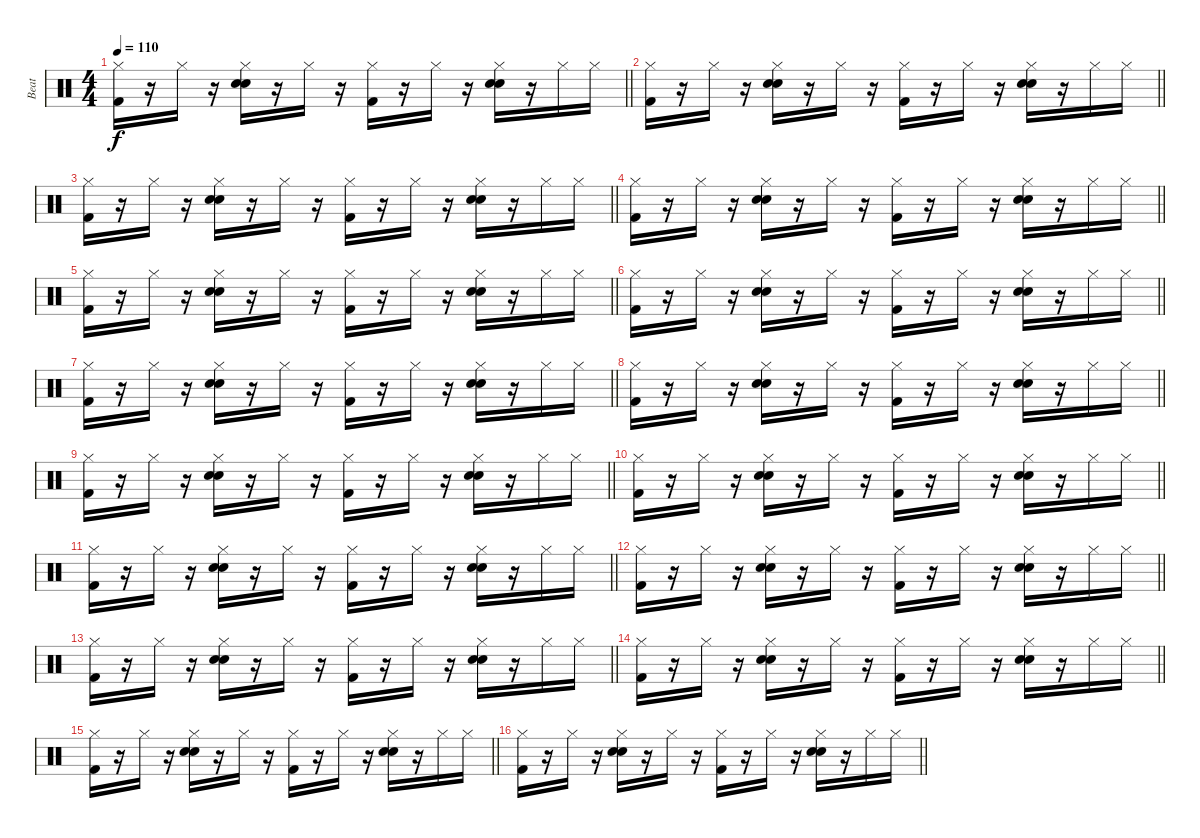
\track ("Beat" "Beat") {instrument percussion}
\staff {score}
\articulation defaults
\ts (4 4)
\tempo 110
\clef neutral
\barLineRight lightlight
\ks c
("Hi-Hat (closed)" "Kick (hit) 2").16{dy f} r.16 "Hi-Hat (closed)".16 r.16 ("Hi-Hat (closed)" "Electric Snare (hit)" "Hand Clap (hit)").16 r.16 "Hi-Hat (closed)".16 r.16 ("Hi-Hat (closed)" "Kick (hit) 2").16 r.16 "Hi-Hat (closed)".16 r.16 ("Hi-Hat (closed)" "Electric Snare (hit)" "Hand Clap (hit)").16 r.16 "Hi-Hat (closed)".16 "Hi-Hat (closed)".16 |
\barLineRight lightlight
("Hi-Hat (closed)" "Kick (hit) 2").16 r.16 "Hi-Hat (closed)".16 r.16 ("Hi-Hat (closed)" "Electric Snare (hit)" "Hand Clap (hit)").16 r.16 "Hi-Hat (closed)".16 r.16 ("Hi-Hat (closed)" "Kick (hit) 2").16 r.16 "Hi-Hat (closed)".16 r.16 ("Hi-Hat (closed)" "Electric Snare (hit)" "Hand Clap (hit)").16 r.16 "Hi-Hat (closed)".16 "Hi-Hat (closed)".16 |
\barLineRight lightlight
("Hi-Hat (closed)" "Kick (hit) 2").16 r.16 "Hi-Hat (closed)".16 r.16 ("Hi-Hat (closed)" "Electric Snare (hit)" "Hand Clap (hit)").16 r.16 "Hi-Hat (closed)".16 r.16 ("Hi-Hat (closed)" "Kick (hit) 2").16 r.16 "Hi-Hat (closed)".16 r.16 ("Hi-Hat (closed)" "Electric Snare (hit)" "Hand Clap (hit)").16 r.16 "Hi-Hat (closed)".16 "Hi-Hat (closed)".16 |
\barLineRight lightlight
("Hi-Hat (closed)" "Kick (hit) 2").16 r.16 "Hi-Hat (closed)".16 r.16 ("Hi-Hat (closed)" "Electric Snare (hit)" "Hand Clap (hit)").16 r.16 "Hi-Hat (closed)".16 r.16 ("Hi-Hat (closed)" "Kick (hit) 2").16 r.16 "Hi-Hat (closed)".16 r.16 ("Hi-Hat (closed)" "Electric Snare (hit)" "Hand Clap (hit)").16 r.16 "Hi-Hat (closed)".16 "Hi-Hat (closed)".16 |
\barLineRight lightlight
("Hi-Hat (closed)" "Kick (hit) 2").16 r.16 "Hi-Hat (closed)".16 r.16 ("Hi-Hat (closed)" "Electric Snare (hit)" "Hand Clap (hit)").16 r.16 "Hi-Hat (closed)".16 r.16 ("Hi-Hat (closed)" "Kick (hit) 2").16 r.16 "Hi-Hat (closed)".16 r.16 ("Hi-Hat (closed)" "Electric Snare (hit)" "Hand Clap (hit)").16 r.16 "Hi-Hat (closed)".16 "Hi-Hat (closed)".16 |
\barLineRight lightlight
("Hi-Hat (closed)" "Kick (hit) 2").16 r.16 "Hi-Hat (closed)".16 r.16 ("Hi-Hat (closed)" "Electric Snare (hit)" "Hand Clap (hit)").16 r.16 "Hi-Hat (closed)".16 r.16 ("Hi-Hat (closed)" "Kick (hit) 2").16 r.16 "Hi-Hat (closed)".16 r.16 ("Hi-Hat (closed)" "Electric Snare (hit)" "Hand Clap (hit)").16 r.16 "Hi-Hat (closed)".16 "Hi-Hat (closed)".16 |
\barLineRight lightlight
("Hi-Hat (closed)" "Kick (hit) 2").16 r.16 "Hi-Hat (closed)".16 r.16 ("Hi-Hat (closed)" "Electric Snare (hit)" "Hand Clap (hit)").16 r.16 "Hi-Hat (closed)".16 r.16 ("Hi-Hat (closed)" "Kick (hit) 2").16 r.16 "Hi-Hat (closed)".16 r.16 ("Hi-Hat (closed)" "Electric Snare (hit)" "Hand Clap (hit)").16 r.16 "Hi-Hat (closed)".16 "Hi-Hat (closed)".16 |
\barLineRight lightlight
("Hi-Hat (closed)" "Kick (hit) 2").16 r.16 "Hi-Hat (closed)".16 r.16 ("Hi-Hat (closed)" "Electric Snare (hit)" "Hand Clap (hit)").16 r.16 "Hi-Hat (closed)".16 r.16 ("Hi-Hat (closed)" "Kick (hit) 2").16 r.16 "Hi-Hat (closed)".16 r.16 ("Hi-Hat (closed)" "Electric Snare (hit)" "Hand Clap (hit)").16 r.16 "Hi-Hat (closed)".16 "Hi-Hat (closed)".16 |
\barLineRight lightlight
("Hi-Hat (closed)" "Kick (hit) 2").16 r.16 "Hi-Hat (closed)".16 r.16 ("Hi-Hat (closed)" "Electric Snare (hit)" "Hand Clap (hit)").16 r.16 "Hi-Hat (closed)".16 r.16 ("Hi-Hat (closed)" "Kick (hit) 2").16 r.16 "Hi-Hat (closed)".16 r.16 ("Hi-Hat (closed)" "Electric Snare (hit)" "Hand Clap (hit)").16 r.16 "Hi-Hat (closed)".16 "Hi-Hat (closed)".16 |
\barLineRight lightlight
("Hi-Hat (closed)" "Kick (hit) 2").16 r.16 "Hi-Hat (closed)".16 r.16 ("Hi-Hat (closed)" "Electric Snare (hit)" "Hand Clap (hit)").16 r.16 "Hi-Hat (closed)".16 r.16 ("Hi-Hat (closed)" "Kick (hit) 2").16 r.16 "Hi-Hat (closed)".16 r.16 ("Hi-Hat (closed)" "Electric Snare (hit)" "Hand Clap (hit)").16 r.16 "Hi-Hat (closed)".16 "Hi-Hat (closed)".16 |
\barLineRight lightlight
("Hi-Hat (closed)" "Kick (hit) 2").16 r.16 "Hi-Hat (closed)".16 r.16 ("Hi-Hat (closed)" "Electric Snare (hit)" "Hand Clap (hit)").16 r.16 "Hi-Hat (closed)".16 r.16 ("Hi-Hat (closed)" "Kick (hit) 2").16 r.16 "Hi-Hat (closed)".16 r.16 ("Hi-Hat (closed)" "Electric Snare (hit)" "Hand Clap (hit)").16 r.16 "Hi-Hat (closed)".16 "Hi-Hat (closed)".16 |
\barLineRight lightlight
("Hi-Hat (closed)" "Kick (hit) 2").16 r.16 "Hi-Hat (closed)".16 r.16 ("Hi-Hat (closed)" "Electric Snare (hit)" "Hand Clap (hit)").16 r.16 "Hi-Hat (closed)".16 r.16 ("Hi-Hat (closed)" "Kick (hit) 2").16 r.16 "Hi-Hat (closed)".16 r.16 ("Hi-Hat (closed)" "Electric Snare (hit)" "Hand Clap (hit)").16 r.16 "Hi-Hat (closed)".16 "Hi-Hat (closed)".16 |
\barLineRight lightlight
("Hi-Hat (closed)" "Kick (hit) 2").16 r.16 "Hi-Hat (closed)".16 r.16 ("Hi-Hat (closed)" "Electric Snare (hit)" "Hand Clap (hit)").16 r.16 "Hi-Hat (closed)".16 r.16 ("Hi-Hat (closed)" "Kick (hit) 2").16 r.16 "Hi-Hat (closed)".16 r.16 ("Hi-Hat (closed)" "Electric Snare (hit)" "Hand Clap (hit)").16 r.16 "Hi-Hat (closed)".16 "Hi-Hat (closed)".16 |
\barLineRight lightlight
("Hi-Hat (closed)" "Kick (hit) 2").16 r.16 "Hi-Hat (closed)".16 r.16 ("Hi-Hat (closed)" "Electric Snare (hit)" "Hand Clap (hit)").16 r.16 "Hi-Hat (closed)".16 r.16 ("Hi-Hat (closed)" "Kick (hit) 2").16 r.16 "Hi-Hat (closed)".16 r.16 ("Hi-Hat (closed)" "Electric Snare (hit)" "Hand Clap (hit)").16 r.16 "Hi-Hat (closed)".16 "Hi-Hat (closed)".16 |
\barLineRight lightlight
("Hi-Hat (closed)" "Kick (hit) 2").16 r.16 "Hi-Hat (closed)".16 r.16 ("Hi-Hat (closed)" "Electric Snare (hit)" "Hand Clap (hit)").16 r.16 "Hi-Hat (closed)".16 r.16 ("Hi-Hat (closed)" "Kick (hit) 2").16 r.16 "Hi-Hat (closed)".16 r.16 ("Hi-Hat (closed)" "Electric Snare (hit)" "Hand Clap (hit)").16 r.16 "Hi-Hat (closed)".16 "Hi-Hat (closed)".16 |
\barLineRight lightlight
("Hi-Hat (closed)" "Kick (hit) 2").16 r.16 "Hi-Hat (closed)".16 r.16 ("Hi-Hat (closed)" "Electric Snare (hit)" "Hand Clap (hit)").16 r.16 "Hi-Hat (closed)".16 r.16 ("Hi-Hat (closed)" "Kick (hit) 2").16 r.16 "Hi-Hat (closed)".16 r.16 ("Hi-Hat (closed)" "Electric Snare (hit)" "Hand Clap (hit)").16 r.16 "Hi-Hat (closed)".16 "Hi-Hat (closed)".16
